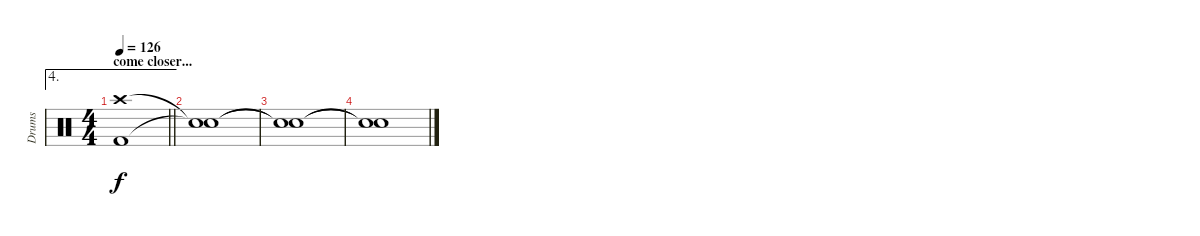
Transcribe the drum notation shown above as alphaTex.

\track ("Drums" "Drums") {instrument percussion}
\staff {score}
\articulation defaults
\ae 4
\ts (4 4)
\section ("" "come closer...")
\tempo 126
\clef neutral
\barLineRight lightlight
\ks c
("Crash high (hit)" "Kick (hit) 2").1{dy f} |
("Snare (hit)"{t} "Snare (hit)"{t}).1 |
("Snare (hit)"{t} "Snare (hit)"{t}).1 |
("Snare (hit)"{t} "Snare (hit)"{t}).1
